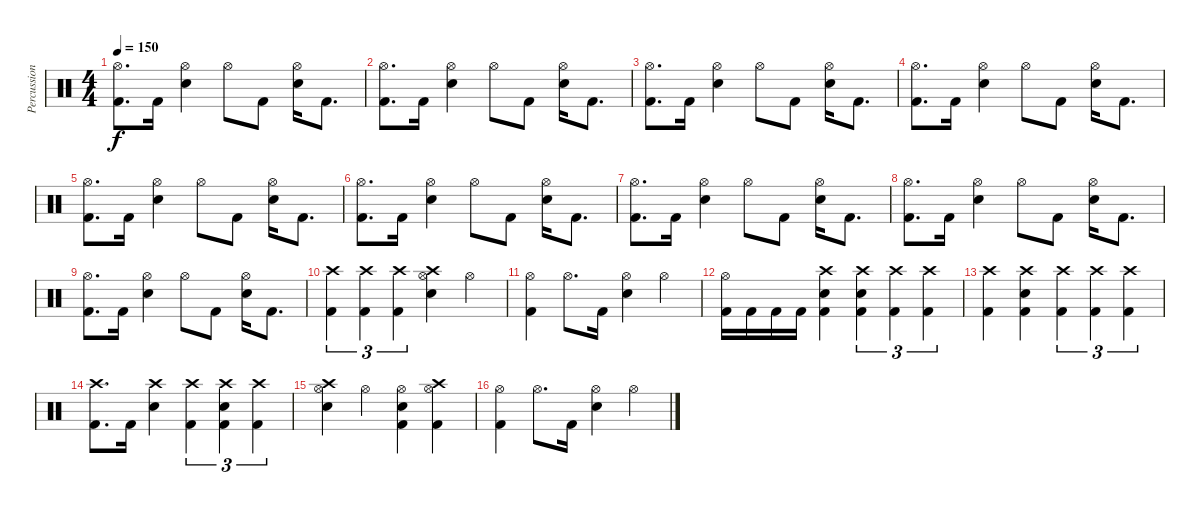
\track ("Percussion" "Percussion") {instrument percussion}
\staff {score}
\articulation defaults
\ts (4 4)
\tempo 150
\clef neutral
\ks c
("Hi-Hat (open)" "Kick (hit) 2").8{d dy f} "Kick (hit) 2".16 ("Hi-Hat (open)" "Snare (hit) 2").4 "Hi-Hat (open)".8 "Kick (hit) 2".8 ("Hi-Hat (open)" "Snare (hit) 2").16 "Kick (hit) 2".8{d} |
("Hi-Hat (open)" "Kick (hit) 2").8{d} "Kick (hit) 2".16 ("Hi-Hat (open)" "Snare (hit) 2").4 "Hi-Hat (open)".8 "Kick (hit) 2".8 ("Hi-Hat (open)" "Snare (hit) 2").16 "Kick (hit) 2".8{d} |
("Hi-Hat (open)" "Kick (hit) 2").8{d} "Kick (hit) 2".16 ("Hi-Hat (open)" "Snare (hit) 2").4 "Hi-Hat (open)".8 "Kick (hit) 2".8 ("Hi-Hat (open)" "Snare (hit) 2").16 "Kick (hit) 2".8{d} |
("Hi-Hat (open)" "Kick (hit) 2").8{d} "Kick (hit) 2".16 ("Hi-Hat (open)" "Snare (hit) 2").4 "Hi-Hat (open)".8 "Kick (hit) 2".8 ("Hi-Hat (open)" "Snare (hit) 2").16 "Kick (hit) 2".8{d} |
("Hi-Hat (open)" "Kick (hit) 2").8{d} "Kick (hit) 2".16 ("Hi-Hat (open)" "Snare (hit) 2").4 "Hi-Hat (open)".8 "Kick (hit) 2".8 ("Hi-Hat (open)" "Snare (hit) 2").16 "Kick (hit) 2".8{d} |
("Hi-Hat (open)" "Kick (hit) 2").8{d} "Kick (hit) 2".16 ("Hi-Hat (open)" "Snare (hit) 2").4 "Hi-Hat (open)".8 "Kick (hit) 2".8 ("Hi-Hat (open)" "Snare (hit) 2").16 "Kick (hit) 2".8{d} |
("Hi-Hat (open)" "Kick (hit) 2").8{d} "Kick (hit) 2".16 ("Hi-Hat (open)" "Snare (hit) 2").4 "Hi-Hat (open)".8 "Kick (hit) 2".8 ("Hi-Hat (open)" "Snare (hit) 2").16 "Kick (hit) 2".8{d} |
("Hi-Hat (open)" "Kick (hit) 2").8{d} "Kick (hit) 2".16 ("Hi-Hat (open)" "Snare (hit) 2").4 "Hi-Hat (open)".8 "Kick (hit) 2".8 ("Hi-Hat (open)" "Snare (hit) 2").16 "Kick (hit) 2".8{d} |
("Hi-Hat (open)" "Kick (hit) 2").8{d} "Kick (hit) 2".16 ("Hi-Hat (open)" "Snare (hit) 2").4 "Hi-Hat (open)".8 "Kick (hit) 2".8 ("Hi-Hat (open)" "Snare (hit) 2").16 "Kick (hit) 2".8{d} |
("Crash high (hit)" "Kick (hit) 2").4{tu (3 2)} ("Crash high (hit)" "Kick (hit) 2").4{tu (3 2)} ("Crash high (hit)" "Kick (hit) 2").4{tu (3 2)} ("Crash high (hit)" "Hi-Hat (open)" "Snare (hit) 2").4 "Hi-Hat (open)".4 |
("Hi-Hat (open)" "Kick (hit) 2").4 "Hi-Hat (open)".8{d} "Kick (hit) 2".16 ("Hi-Hat (open)" "Snare (hit) 2").4 "Hi-Hat (open)".4 |
("Hi-Hat (open)" "Kick (hit) 2").16 "Kick (hit) 2".16 "Kick (hit) 2".16 "Kick (hit) 2".16 ("Crash high (hit)" "Snare (hit) 2" "Kick (hit) 2").4 ("Crash high (hit)" "Snare (hit) 2" "Kick (hit) 2").4{tu (3 2)} ("Crash high (hit)" "Kick (hit) 2").4{tu (3 2)} ("Crash high (hit)" "Kick (hit) 2").4{tu (3 2)} |
("Crash high (hit)" "Kick (hit) 2").4 ("Crash high (hit)" "Snare (hit) 2" "Kick (hit) 2").4 ("Crash high (hit)" "Kick (hit) 2").4{tu (3 2)} ("Crash high (hit)" "Kick (hit) 2").4{tu (3 2)} ("Crash high (hit)" "Kick (hit) 2").4{tu (3 2)} |
("Crash high (hit)" "Kick (hit) 2").8{d} "Kick (hit) 2".16 ("Crash high (hit)" "Snare (hit) 2").4 ("Crash high (hit)" "Kick (hit) 2").4{tu (3 2)} ("Crash high (hit)" "Snare (hit) 2" "Kick (hit) 2").4{tu (3 2)} ("Crash high (hit)" "Kick (hit) 2").4{tu (3 2)} |
("Crash high (hit)" "Hi-Hat (open)" "Snare (hit) 2").4 "Hi-Hat (open)".4 ("Hi-Hat (open)" "Snare (hit) 2" "Kick (hit) 2").4 ("Crash high (hit)" "Hi-Hat (open)" "Kick (hit) 2").4 |
("Hi-Hat (open)" "Kick (hit) 2").4 "Hi-Hat (open)".8{d} "Kick (hit) 2".16 ("Hi-Hat (open)" "Snare (hit) 2").4 "Hi-Hat (open)".4
